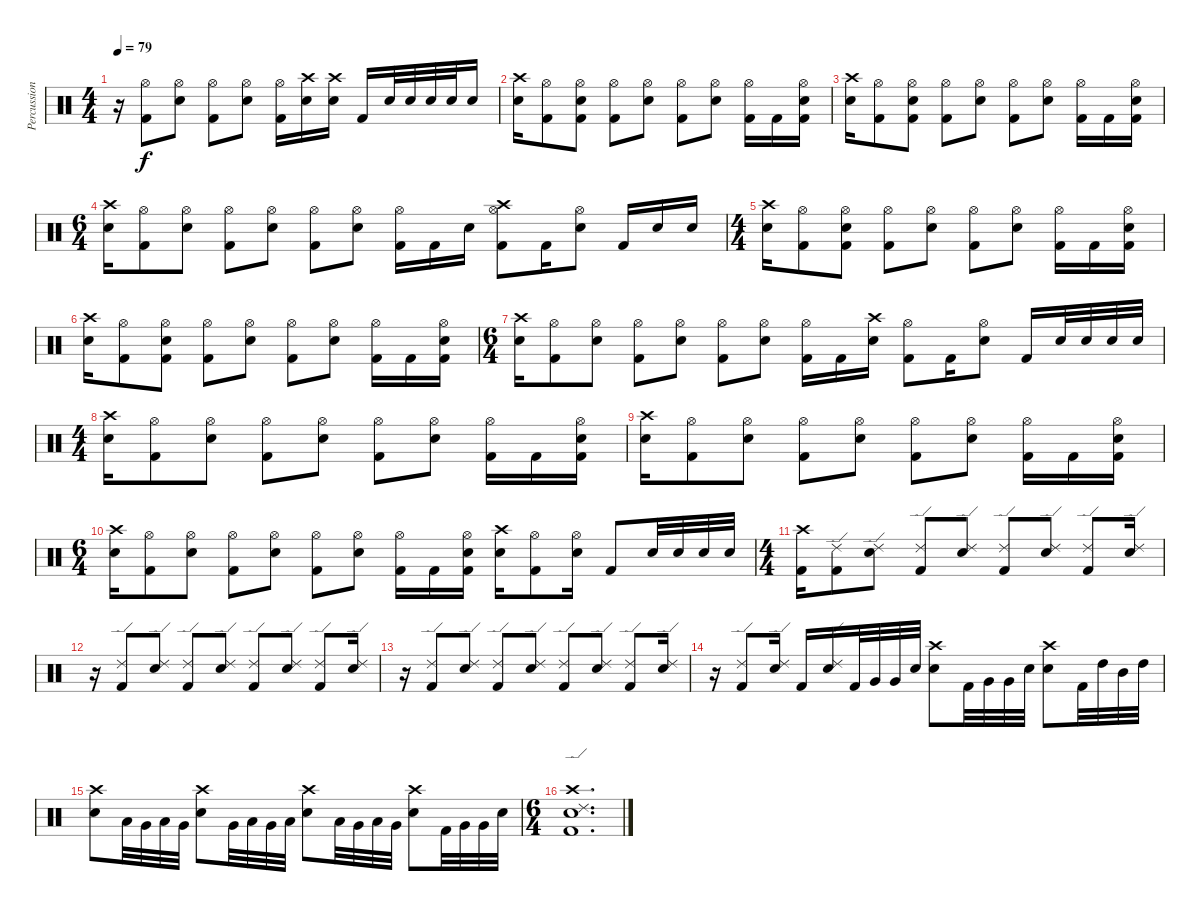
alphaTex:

\track ("Percussion" "Percussion") {instrument percussion}
\staff {score}
\articulation defaults
\ts (4 4)
\tempo 79
\clef neutral
\ks c
r.16{dy f} ("Hi-Hat (open)" "Kick (hit) 2").8 ("Hi-Hat (open)" "Electric Snare (hit)").8 ("Hi-Hat (open)" "Kick (hit) 2").8 ("Hi-Hat (open)" "Electric Snare (hit)").8 ("Hi-Hat (open)" "Kick (hit) 2").16 ("Crash high (hit)" "Electric Snare (hit)").16 ("Crash high (hit)" "Electric Snare (hit)").16 "Kick (hit) 2".16 "Electric Snare (hit)".32 "Electric Snare (hit)".32 "Electric Snare (hit)".32 "Electric Snare (hit)".32 "Electric Snare (hit)".16 |
("Crash high (hit)" "Electric Snare (hit)").16 ("Hi-Hat (open)" "Kick (hit) 2").8 ("Hi-Hat (open)" "Electric Snare (hit)" "Kick (hit) 2").8 ("Hi-Hat (open)" "Kick (hit) 2").8 ("Hi-Hat (open)" "Electric Snare (hit)").8 ("Hi-Hat (open)" "Kick (hit) 2").8 ("Hi-Hat (open)" "Electric Snare (hit)").8 ("Hi-Hat (open)" "Kick (hit) 2").16 "Kick (hit) 2".16 ("Hi-Hat (open)" "Electric Snare (hit)" "Kick (hit) 2").16 |
("Crash high (hit)" "Electric Snare (hit)").16 ("Hi-Hat (open)" "Kick (hit) 2").8 ("Hi-Hat (open)" "Electric Snare (hit)" "Kick (hit) 2").8 ("Hi-Hat (open)" "Kick (hit) 2").8 ("Hi-Hat (open)" "Electric Snare (hit)").8 ("Hi-Hat (open)" "Kick (hit) 2").8 ("Hi-Hat (open)" "Electric Snare (hit)").8 ("Hi-Hat (open)" "Kick (hit) 2").16 "Kick (hit) 2".16 ("Hi-Hat (open)" "Electric Snare (hit)" "Kick (hit) 2").16 |
\ts (6 4)
("Crash high (hit)" "Electric Snare (hit)").16 ("Hi-Hat (open)" "Kick (hit) 2").8 ("Hi-Hat (open)" "Electric Snare (hit)").8 ("Hi-Hat (open)" "Kick (hit) 2").8 ("Hi-Hat (open)" "Electric Snare (hit)").8 ("Hi-Hat (open)" "Kick (hit) 2").8 ("Hi-Hat (open)" "Electric Snare (hit)").8 ("Hi-Hat (open)" "Kick (hit) 2").16 "Kick (hit) 2".16 "Electric Snare (hit)".16 ("Crash high (hit)" "Hi-Hat (open)" "Kick (hit) 2").8 "Kick (hit) 2".16 ("Hi-Hat (open)" "Electric Snare (hit)").8 "Kick (hit) 2".16 "Electric Snare (hit)".16 "Electric Snare (hit)".16 |
\ts (4 4)
("Crash high (hit)" "Electric Snare (hit)").16 ("Hi-Hat (open)" "Kick (hit) 2").8 ("Hi-Hat (open)" "Electric Snare (hit)" "Kick (hit) 2").8 ("Hi-Hat (open)" "Kick (hit) 2").8 ("Hi-Hat (open)" "Electric Snare (hit)").8 ("Hi-Hat (open)" "Kick (hit) 2").8 ("Hi-Hat (open)" "Electric Snare (hit)").8 ("Hi-Hat (open)" "Kick (hit) 2").16 "Kick (hit) 2".16 ("Hi-Hat (open)" "Electric Snare (hit)" "Kick (hit) 2").16 |
("Crash high (hit)" "Electric Snare (hit)").16 ("Hi-Hat (open)" "Kick (hit) 2").8 ("Hi-Hat (open)" "Electric Snare (hit)" "Kick (hit) 2").8 ("Hi-Hat (open)" "Kick (hit) 2").8 ("Hi-Hat (open)" "Electric Snare (hit)").8 ("Hi-Hat (open)" "Kick (hit) 2").8 ("Hi-Hat (open)" "Electric Snare (hit)").8 ("Hi-Hat (open)" "Kick (hit) 2").16 "Kick (hit) 2".16 ("Hi-Hat (open)" "Electric Snare (hit)" "Kick (hit) 2").16 |
\ts (6 4)
("Crash high (hit)" "Electric Snare (hit)").16 ("Hi-Hat (open)" "Kick (hit) 2").8 ("Hi-Hat (open)" "Electric Snare (hit)").8 ("Hi-Hat (open)" "Kick (hit) 2").8 ("Hi-Hat (open)" "Electric Snare (hit)").8 ("Hi-Hat (open)" "Kick (hit) 2").8 ("Hi-Hat (open)" "Electric Snare (hit)").8 ("Hi-Hat (open)" "Kick (hit) 2").16 "Kick (hit) 2".16 ("Crash high (hit)" "Electric Snare (hit)").16 ("Hi-Hat (open)" "Kick (hit) 2").8 "Kick (hit) 2".16 ("Hi-Hat (open)" "Electric Snare (hit)").8 "Kick (hit) 2".16 "Electric Snare (hit)".32 "Electric Snare (hit)".32 "Electric Snare (hit)".32 "Electric Snare (hit)".32 |
\ts (4 4)
("Crash high (hit)" "Electric Snare (hit)").16 ("Hi-Hat (open)" "Kick (hit) 2").8 ("Hi-Hat (open)" "Electric Snare (hit)").8 ("Hi-Hat (open)" "Kick (hit) 2").8 ("Hi-Hat (open)" "Electric Snare (hit)").8 ("Hi-Hat (open)" "Kick (hit) 2").8 ("Hi-Hat (open)" "Electric Snare (hit)").8 ("Hi-Hat (open)" "Kick (hit) 2").16 "Kick (hit) 2".16 ("Hi-Hat (open)" "Electric Snare (hit)" "Kick (hit) 2").16 |
("Crash high (hit)" "Electric Snare (hit)").16 ("Hi-Hat (open)" "Kick (hit) 2").8 ("Hi-Hat (open)" "Electric Snare (hit)").8 ("Hi-Hat (open)" "Kick (hit) 2").8 ("Hi-Hat (open)" "Electric Snare (hit)").8 ("Hi-Hat (open)" "Kick (hit) 2").8 ("Hi-Hat (open)" "Electric Snare (hit)").8 ("Hi-Hat (open)" "Kick (hit) 2").16 "Kick (hit) 2".16 ("Hi-Hat (open)" "Electric Snare (hit)" "Kick (hit) 2").16 |
\ts (6 4)
("Crash high (hit)" "Electric Snare (hit)").16 ("Hi-Hat (open)" "Kick (hit) 2").8 ("Hi-Hat (open)" "Electric Snare (hit)").8 ("Hi-Hat (open)" "Kick (hit) 2").8 ("Hi-Hat (open)" "Electric Snare (hit)").8 ("Hi-Hat (open)" "Kick (hit) 2").8 ("Hi-Hat (open)" "Electric Snare (hit)").8 ("Hi-Hat (open)" "Kick (hit) 2").16 "Kick (hit) 2".16 ("Hi-Hat (open)" "Electric Snare (hit)" "Kick (hit) 2").16 ("Crash high (hit)" "Electric Snare (hit)").16 ("Hi-Hat (open)" "Kick (hit) 2").8 ("Hi-Hat (open)" "Electric Snare (hit)").16 "Kick (hit) 2".8 "Electric Snare (hit)".32 "Electric Snare (hit)".32 "Electric Snare (hit)".32 "Electric Snare (hit)".32 |
\ts (4 4)
("Crash high (hit)" "Kick (hit) 2").16 ("Ride (edge) 2" "Kick (hit) 2").8 ("Ride (edge) 2" "Electric Snare (hit)").8 ("Ride (edge) 2" "Kick (hit) 2").8 ("Ride (edge) 2" "Electric Snare (hit)").8 ("Ride (edge) 2" "Kick (hit) 2").8 ("Ride (edge) 2" "Electric Snare (hit)").8 ("Ride (edge) 2" "Kick (hit) 2").8 ("Ride (edge) 2" "Electric Snare (hit)").16 |
r.16 ("Ride (edge) 2" "Kick (hit) 2").8 ("Ride (edge) 2" "Electric Snare (hit)").8 ("Ride (edge) 2" "Kick (hit) 2").8 ("Ride (edge) 2" "Electric Snare (hit)").8 ("Ride (edge) 2" "Kick (hit) 2").8 ("Ride (edge) 2" "Electric Snare (hit)").8 ("Ride (edge) 2" "Kick (hit) 2").8 ("Ride (edge) 2" "Electric Snare (hit)").16 |
r.16 ("Ride (edge) 2" "Kick (hit) 2").8 ("Ride (edge) 2" "Electric Snare (hit)").8 ("Ride (edge) 2" "Kick (hit) 2").8 ("Ride (edge) 2" "Electric Snare (hit)").8 ("Ride (edge) 2" "Kick (hit) 2").8 ("Ride (edge) 2" "Electric Snare (hit)").8 ("Ride (edge) 2" "Kick (hit) 2").8 ("Ride (edge) 2" "Electric Snare (hit)").16 |
r.16 ("Ride (edge) 2" "Kick (hit) 2").8 ("Ride (edge) 2" "Electric Snare (hit)").16 "Kick (hit) 2".16 ("Ride (edge) 2" "Electric Snare (hit)").16 "Kick (hit) 2".32 "Very Low Tom (hit)".32 "Very Low Tom (hit)".32 "Electric Snare (hit)".32 ("Crash high (hit)" "Electric Snare (hit)").8 "Kick (hit) 2".32 "Very Low Tom (hit)".32 "Very Low Tom (hit)".32 "Electric Snare (hit)".32 ("Crash high (hit)" "Electric Snare (hit)").8 "Kick (hit) 2".32 "High Tom (hit)".32 "Mid Tom (hit)".32 "High Tom (hit)".32 |
("Crash high (hit)" "Electric Snare (hit)").8 "Low Tom (hit)".32 "Very Low Tom (hit)".32 "Low Tom (hit)".32 "Very Low Tom (hit)".32 ("Crash high (hit)" "Electric Snare (hit)").8 "Very Low Tom (hit)".32 "Low Floor Tom (hit)".32 "Very Low Tom (hit)".32 "Low Floor Tom (hit)".32 ("Crash high (hit)" "Electric Snare (hit)").8 "Low Tom (hit)".32 "Very Low Tom (hit)".32 "Low Tom (hit)".32 "Very Low Tom (hit)".32 ("Crash high (hit)" "Electric Snare (hit)").8 "Kick (hit) 2".32 "Very Low Tom (hit)".32 "Very Low Tom (hit)".32 "Electric Snare (hit)".32 |
\ts (6 4)
("Crash high (hit)" "Ride (edge) 2" "Electric Snare (hit)" "Kick (hit) 2").1{d}
